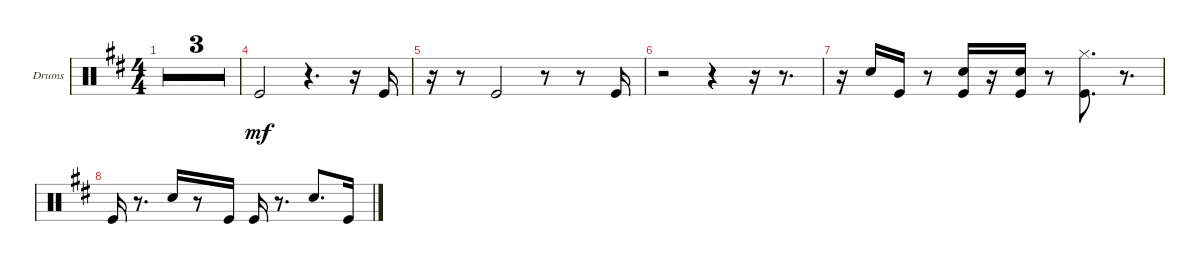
\defaultSystemsLayout 4
\bracketExtendMode groupsimilarinstruments
\firstSystemTrackNameOrientation horizontal
\otherSystemsTrackNameOrientation horizontal
\track ("Drumkit" "Drums") {multiBarRest instrument percussion}
\staff {score}
\articulation defaults
\ts (4 4)
\tempo 120
\clef neutral
\scale
0.311475
\ks d
r.1{dy mf} |
\scale
0.311475 r.1 |
\rc 2
\scale
0.355932 r.1 |
\scale
0.322034 "Kick (hit)".2 r.4{d} r.16 "Kick (hit)".16 |
\scale
0.322034 r.16 r.8 "Kick (hit)".2 r.8 r.8 "Kick (hit)".16 |
r.2 r.4 r.16 r.8{d} |
r.16 "Snare (hit) 2".16 "Kick (hit)".16 r.8 ("Kick (hit)" "Snare (hit) 2").16 r.16 ("Kick (hit)" "Snare (hit) 2").16 r.8 ("Kick (hit)" "Hi-Hat (closed)").8{d} r.8{d} |
"Kick (hit)".16 r.8{d} "Snare (hit) 2".16 r.8 "Kick (hit)".16 "Kick (hit)".16 r.8{d} "Snare (hit) 2".8{d} "Kick (hit)".16
